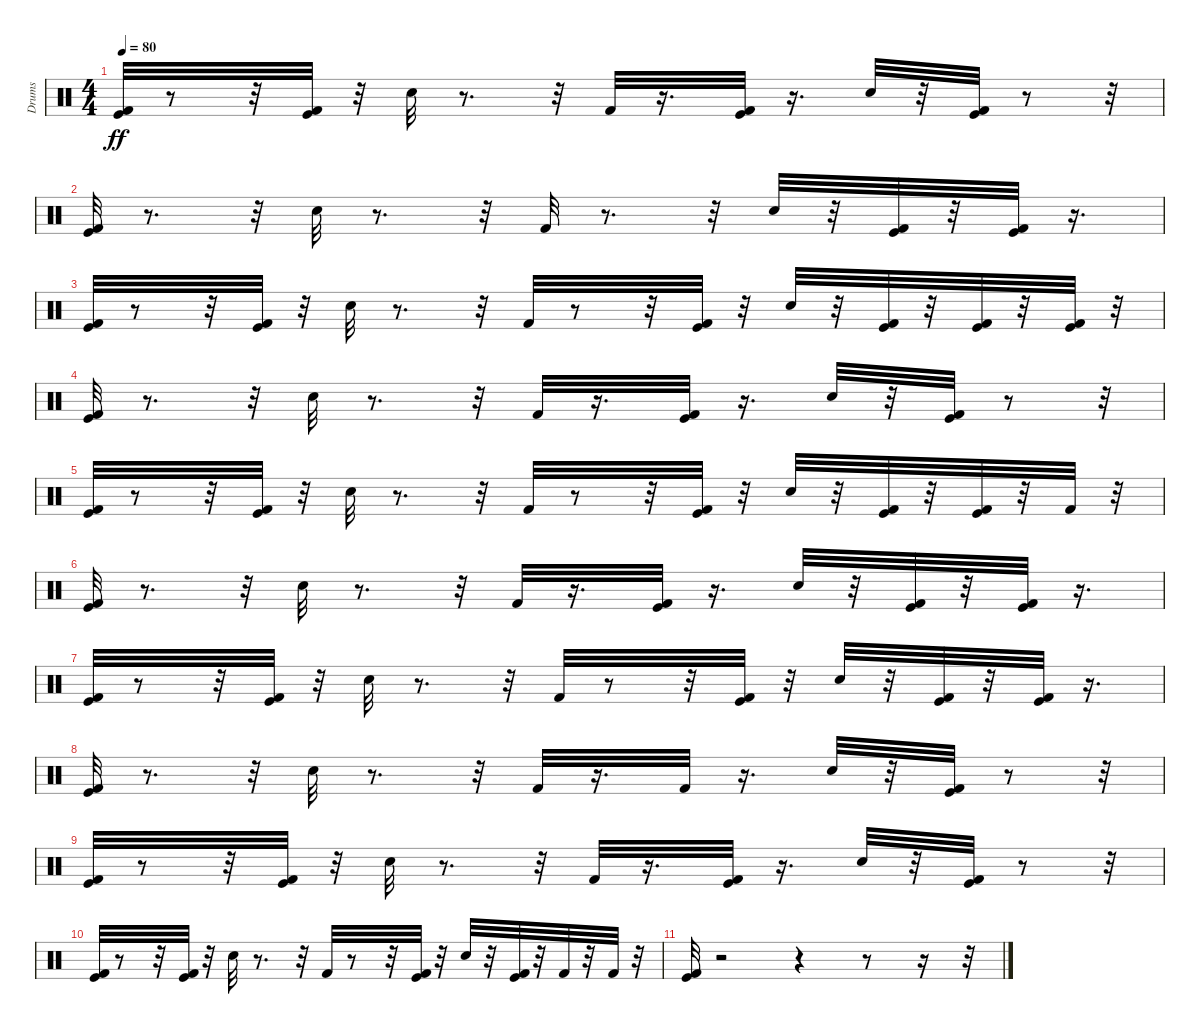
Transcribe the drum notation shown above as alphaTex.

\track ("Drums" "Drums") {instrument percussion}
\staff {score}
\articulation defaults
\ts (4 4)
\tempo 80
\clef neutral
\ks c
("Kick (hit)" "Kick (hit) 2").32{dy ff} r.8 r.32 ("Kick (hit)" "Kick (hit) 2").32 r.32 "Hand Clap (hit)".32 r.8{d} r.32 "Kick (hit) 2".32 r.16{d} ("Kick (hit)" "Kick (hit) 2").32 r.16{d} "Hand Clap (hit)".32 r.32 ("Kick (hit)" "Kick (hit) 2").32 r.8 r.32 |
("Kick (hit)" "Kick (hit) 2").32 r.8{d} r.32 "Hand Clap (hit)".32 r.8{d} r.32 "Kick (hit) 2".32 r.8{d} r.32 "Hand Clap (hit)".32 r.32 ("Kick (hit)" "Kick (hit) 2").32 r.32 ("Kick (hit)" "Kick (hit) 2").32 r.16{d} |
("Kick (hit)" "Kick (hit) 2").32 r.8 r.32 ("Kick (hit)" "Kick (hit) 2").32 r.32 "Hand Clap (hit)".32 r.8{d} r.32 "Kick (hit) 2".32 r.8 r.32 ("Kick (hit)" "Kick (hit) 2").32 r.32 "Hand Clap (hit)".32 r.32 ("Kick (hit)" "Kick (hit) 2").32 r.32 ("Kick (hit)" "Kick (hit) 2").32 r.32 ("Kick (hit)" "Kick (hit) 2").32 r.32 |
("Kick (hit)" "Kick (hit) 2").32 r.8{d} r.32 "Hand Clap (hit)".32 r.8{d} r.32 "Kick (hit) 2".32 r.16{d} ("Kick (hit)" "Kick (hit) 2").32 r.16{d} "Hand Clap (hit)".32 r.32 ("Kick (hit)" "Kick (hit) 2").32 r.8 r.32 |
("Kick (hit)" "Kick (hit) 2").32 r.8 r.32 ("Kick (hit)" "Kick (hit) 2").32 r.32 "Hand Clap (hit)".32 r.8{d} r.32 "Kick (hit) 2".32 r.8 r.32 ("Kick (hit)" "Kick (hit) 2").32 r.32 "Hand Clap (hit)".32 r.32 ("Kick (hit)" "Kick (hit) 2").32 r.32 ("Kick (hit)" "Kick (hit) 2").32 r.32 "Kick (hit) 2".32 r.32 |
("Kick (hit)" "Kick (hit) 2").32 r.8{d} r.32 "Hand Clap (hit)".32 r.8{d} r.32 "Kick (hit) 2".32 r.16{d} ("Kick (hit)" "Kick (hit) 2").32 r.16{d} "Hand Clap (hit)".32 r.32 ("Kick (hit)" "Kick (hit) 2").32 r.32 ("Kick (hit)" "Kick (hit) 2").32 r.16{d} |
("Kick (hit)" "Kick (hit) 2").32 r.8 r.32 ("Kick (hit)" "Kick (hit) 2").32 r.32 "Hand Clap (hit)".32 r.8{d} r.32 "Kick (hit) 2".32 r.8 r.32 ("Kick (hit)" "Kick (hit) 2").32 r.32 "Hand Clap (hit)".32 r.32 ("Kick (hit)" "Kick (hit) 2").32 r.32 ("Kick (hit)" "Kick (hit) 2").32 r.16{d} |
("Kick (hit)" "Kick (hit) 2").32 r.8{d} r.32 "Hand Clap (hit)".32 r.8{d} r.32 "Kick (hit) 2".32 r.16{d} "Kick (hit) 2".32 r.16{d} "Hand Clap (hit)".32 r.32 ("Kick (hit)" "Kick (hit) 2").32 r.8 r.32 |
("Kick (hit)" "Kick (hit) 2").32 r.8 r.32 ("Kick (hit)" "Kick (hit) 2").32 r.32 "Hand Clap (hit)".32 r.8{d} r.32 "Kick (hit) 2".32 r.16{d} ("Kick (hit)" "Kick (hit) 2").32 r.16{d} "Hand Clap (hit)".32 r.32 ("Kick (hit)" "Kick (hit) 2").32 r.8 r.32 |
("Kick (hit)" "Kick (hit) 2").32 r.8 r.32 ("Kick (hit)" "Kick (hit) 2").32 r.32 "Hand Clap (hit)".32 r.8{d} r.32 "Kick (hit) 2".32 r.8 r.32 ("Kick (hit)" "Kick (hit) 2").32 r.32 "Hand Clap (hit)".32 r.32 ("Kick (hit)" "Kick (hit) 2").32 r.32 "Kick (hit) 2".32 r.32 "Kick (hit) 2".32 r.32 |
("Kick (hit)" "Kick (hit) 2").32 r.2 r.4 r.8 r.16 r.32
